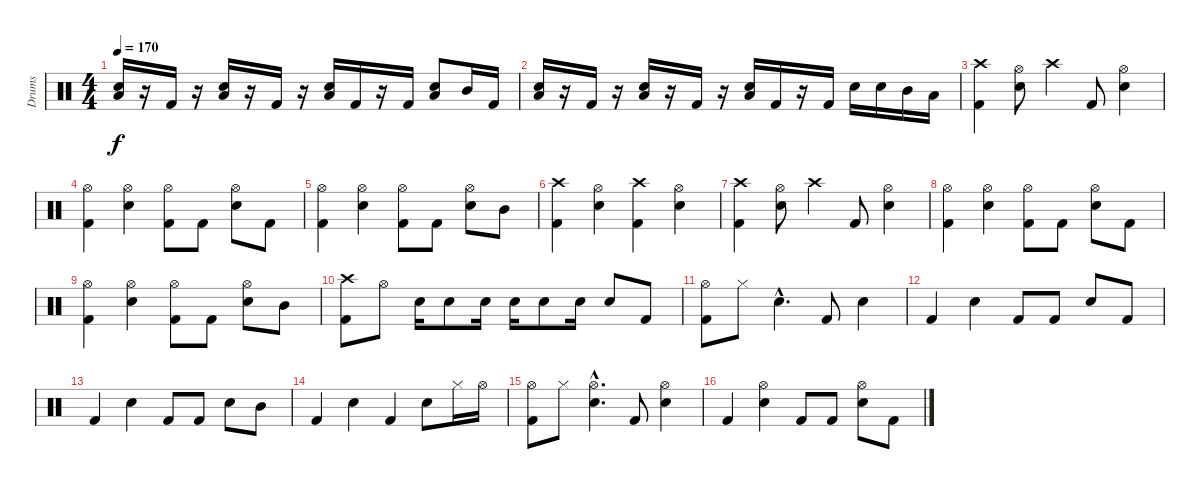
\track ("Drums" "Drums") {instrument percussion}
\staff {score}
\articulation defaults
\ts (4 4)
\tempo 170
\clef neutral
\ks c
("Low Floor Tom (hit)" "Snare (hit) 2").16{dy f} r.16 "Kick (hit) 2".16 r.16 ("Low Floor Tom (hit)" "Snare (hit) 2").16 r.16 "Kick (hit) 2".16 r.16 ("Low Floor Tom (hit)" "Snare (hit) 2").16 "Kick (hit) 2".16 r.16 "Kick (hit) 2".16 ("Low Floor Tom (hit)" "Snare (hit) 2").8 "Mid Tom (hit)".16 "Kick (hit) 2".16 |
("Low Floor Tom (hit)" "Snare (hit) 2").16 r.16 "Kick (hit) 2".16 r.16 ("Low Floor Tom (hit)" "Snare (hit) 2").16 r.16 "Kick (hit) 2".16 r.16 ("Low Floor Tom (hit)" "Snare (hit) 2").16 "Kick (hit) 2".16 r.16 "Kick (hit) 2".16 "Snare (hit) 2".16 "Snare (hit) 2".16 "Mid Tom (hit)".16 "Low Tom (hit)".16 |
("Crash high (hit)" "Kick (hit) 2").4 ("Hi-Hat (open)" "Snare (hit) 2").8 "Crash high (hit)".4 "Kick (hit) 2".8 ("Hi-Hat (open)" "Snare (hit) 2").4 |
("Hi-Hat (open)" "Kick (hit) 2").4 ("Hi-Hat (open)" "Snare (hit) 2").4 ("Hi-Hat (open)" "Kick (hit) 2").8 "Kick (hit) 2".8 ("Hi-Hat (open)" "Snare (hit) 2").8 "Kick (hit) 2".8 |
("Hi-Hat (open)" "Kick (hit) 2").4 ("Hi-Hat (open)" "Snare (hit) 2").4 ("Hi-Hat (open)" "Kick (hit) 2").8 "Kick (hit) 2".8 ("Hi-Hat (open)" "Snare (hit) 2").8 "Mid Tom (hit)".8 |
("Crash high (hit)" "Kick (hit) 2").4 ("Hi-Hat (open)" "Snare (hit) 2").4 ("Crash high (hit)" "Kick (hit) 2").4 ("Hi-Hat (open)" "Snare (hit) 2").4 |
("Crash high (hit)" "Kick (hit) 2").4 ("Hi-Hat (open)" "Snare (hit) 2").8 "Crash high (hit)".4 "Kick (hit) 2".8 ("Hi-Hat (open)" "Snare (hit) 2").4 |
("Hi-Hat (open)" "Kick (hit) 2").4 ("Hi-Hat (open)" "Snare (hit) 2").4 ("Hi-Hat (open)" "Kick (hit) 2").8 "Kick (hit) 2".8 ("Hi-Hat (open)" "Snare (hit) 2").8 "Kick (hit) 2".8 |
("Hi-Hat (open)" "Kick (hit) 2").4 ("Hi-Hat (open)" "Snare (hit) 2").4 ("Hi-Hat (open)" "Kick (hit) 2").8 "Kick (hit) 2".8 ("Hi-Hat (open)" "Snare (hit) 2").8 "Mid Tom (hit)".8 |
("Crash high (hit)" "Kick (hit) 2").8 "Hi-Hat (open)".8 "Snare (hit) 2".16 "Snare (hit) 2".8 "Snare (hit) 2".16 "Snare (hit) 2".16 "Snare (hit) 2".8 "Snare (hit) 2".16 "Snare (hit) 2".8 "Kick (hit) 2".8 |
("Hi-Hat (open)" "Kick (hit) 2").8 "Hi-Hat (closed)".8 "Snare (hit) 2"{hac}.4{d} "Kick (hit) 2".8 "Snare (hit) 2".4 |
"Kick (hit) 2".4 "Snare (hit) 2".4 "Kick (hit) 2".8 "Kick (hit) 2".8 "Snare (hit) 2".8 "Kick (hit) 2".8 |
"Kick (hit) 2".4 "Snare (hit) 2".4 "Kick (hit) 2".8 "Kick (hit) 2".8 "Snare (hit) 2".8 "Mid Tom (hit)".8 |
"Kick (hit) 2".4 "Snare (hit) 2".4 "Kick (hit) 2".4 "Snare (hit) 2".8 "Hi-Hat (closed)".16 "Hi-Hat (open)".16 |
("Hi-Hat (open)" "Kick (hit) 2").8 "Hi-Hat (closed)".8 ("Hi-Hat (open)"{hac} "Snare (hit) 2"{hac}).4{d} "Kick (hit) 2".8 ("Hi-Hat (open)" "Snare (hit) 2").4 |
"Kick (hit) 2".4 ("Hi-Hat (open)" "Snare (hit) 2").4 "Kick (hit) 2".8 "Kick (hit) 2".8 ("Hi-Hat (open)" "Snare (hit) 2").8 "Kick (hit) 2".8
